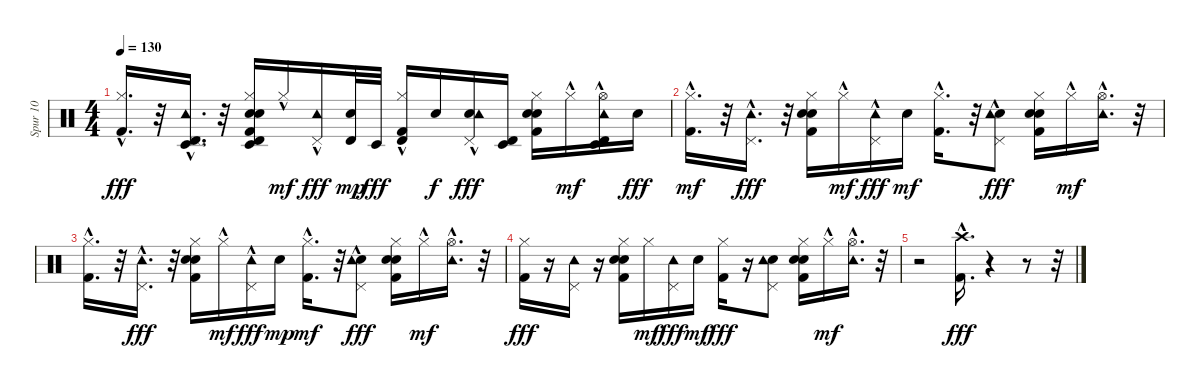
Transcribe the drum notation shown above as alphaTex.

\track ("Spur 10" "Spur 10") {instrument percussion}
\staff {score}
\articulation defaults
\ts (4 4)
\tempo 130
\clef neutral
\ks c
("Hi-Hat (closed)"{hac} "Kick (hit) 2").16{d dy fff} r.32 ("Tambourine (hit)"{hac} "Pedal Hi-Hat (hit)"{hac} "Timbale high (hit)" "Timbale low (hit)").16{d} r.32 ("Hand Clap (hit)" "Hi-Hat (closed)" "Snare (hit) 2" "Kick (hit) 2" "Timbale low (hit)" "Timbale high (hit)").16 "Hi-Hat (closed)"{hac}.16{dy mf} ("Tambourine (hit)"{hac} "Pedal Hi-Hat (hit)"{hac}).16{dy fff} ("Timbale high (hit)" "Electric Snare (hit)").32{dy mp} "Timbale low (hit)".32{dy fff} ("Timbale high (hit)" "Hi-Hat (closed)"{hac} "Kick (hit) 2").16 "Snare (hit) 2".16{dy f} ("Hand Clap (hit)" "Tambourine (hit)"{hac} "Pedal Hi-Hat (hit)"{hac}).16{dy fff} ("Timbale high (hit)" "Timbale low (hit)").16 ("Hand Clap (hit)" "Snare (hit) 2" "Hi-Hat (closed)" "Kick (hit) 2").16 "Hi-Hat (closed)"{hac}.16{dy mf} ("Timbale low (hit)" "Timbale high (hit)" "Tambourine (hit)"{hac} "Hi-Hat (open)"{hac}).16 "Snare (hit) 2".16{dy fff} |
("Kick (hit) 2" "Hi-Hat (closed)"{hac}).16{d dy mf} r.32 ("Tambourine (hit)"{hac} "Pedal Hi-Hat (hit)"{hac}).16{d dy fff} r.32 ("Hand Clap (hit)" "Kick (hit) 2" "Hi-Hat (closed)" "Snare (hit) 2").16 "Hi-Hat (closed)"{hac}.16{dy mf} ("Tambourine (hit)"{hac} "Pedal Hi-Hat (hit)"{hac}).16{dy fff} "Electric Snare (hit)".16{dy mf} ("Kick (hit) 2" "Hi-Hat (closed)"{hac}).16{d} r.32 ("Hand Clap (hit)" "Tambourine (hit)"{hac} "Pedal Hi-Hat (hit)"{hac}).8{dy fff} ("Hand Clap (hit)" "Kick (hit) 2" "Hi-Hat (closed)" "Snare (hit) 2").16 "Hi-Hat (closed)"{hac}.16{dy mf} ("Tambourine (hit)"{hac} "Hi-Hat (open)"{hac}).16{d} r.32 |
("Kick (hit) 2" "Hi-Hat (closed)"{hac}).16{d} r.32 ("Tambourine (hit)"{hac} "Pedal Hi-Hat (hit)"{hac}).16{d dy fff} r.32 ("Hand Clap (hit)" "Hi-Hat (closed)" "Snare (hit) 2" "Kick (hit) 2").16 "Hi-Hat (closed)"{hac}.16{dy mf} ("Tambourine (hit)"{hac} "Pedal Hi-Hat (hit)"{hac}).16{dy fff} "Electric Snare (hit)".16{dy mp} ("Kick (hit) 2" "Hi-Hat (closed)"{hac}).16{d dy mf} r.32 ("Hand Clap (hit)" "Tambourine (hit)"{hac} "Pedal Hi-Hat (hit)"{hac}).8{dy fff} ("Hand Clap (hit)" "Hi-Hat (closed)" "Kick (hit) 2" "Snare (hit) 2").16 "Hi-Hat (closed)"{hac}.16{dy mf} ("Tambourine (hit)"{hac} "Hi-Hat (open)"{hac}).16{d} r.32 |
("Hi-Hat (closed)" "Kick (hit) 2").16{dy fff} r.16 ("Tambourine (hit)" "Pedal Hi-Hat (hit)").16 r.16 ("Hand Clap (hit)" "Snare (hit) 2" "Hi-Hat (closed)" "Kick (hit) 2").16 "Hi-Hat (closed)".16{dy mf} ("Tambourine (hit)" "Pedal Hi-Hat (hit)").16{dy fff} "Electric Snare (hit)".16{dy mf} ("Hi-Hat (closed)" "Kick (hit) 2").16{dy fff} r.16 ("Hand Clap (hit)" "Tambourine (hit)" "Pedal Hi-Hat (hit)").8 ("Hand Clap (hit)" "Snare (hit) 2" "Hi-Hat (closed)" "Kick (hit) 2").16 "Hi-Hat (closed)"{hac}.16{dy mf} ("Tambourine (hit)" "Hi-Hat (open)"{hac}).16{d} r.32 |
r.2 ("Crash high (hit)"{hac} "Kick (hit) 2").16{d dy fff} r.4 r.8 r.32
